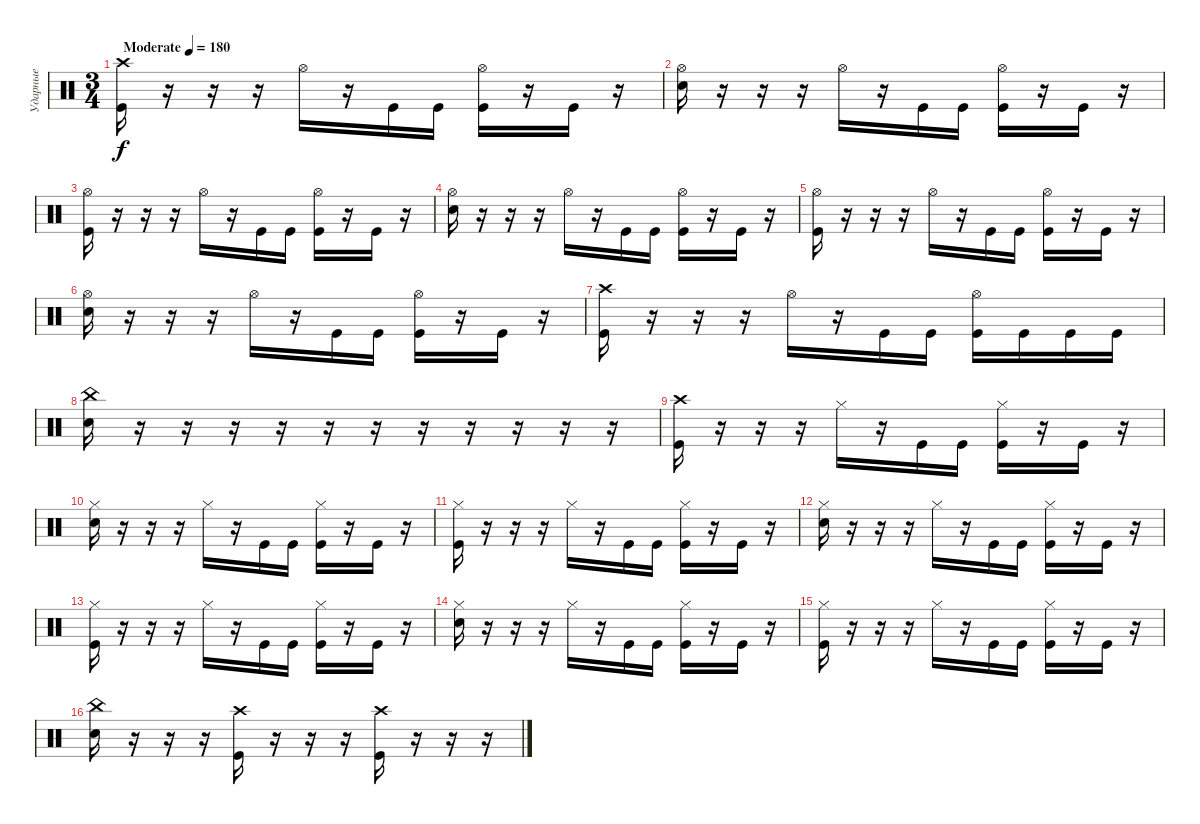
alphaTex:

\track ("Ударные" "Ударные") {instrument percussion}
\staff {score}
\articulation defaults
\ts (3 4)
\tempo (180 "Moderate")
\clef neutral
\ks c
("Crash high (hit)" "Kick (hit)").16{dy f} r.16 r.16 r.16 "Hi-Hat (open)".16 r.16 "Kick (hit)".16 "Kick (hit)".16 ("Hi-Hat (open)" "Kick (hit)").16 r.16 "Kick (hit)".16 r.16 |
("Hi-Hat (open)" "Electric Snare (hit)").16 r.16 r.16 r.16 "Hi-Hat (open)".16 r.16 "Kick (hit)".16 "Kick (hit)".16 ("Hi-Hat (open)" "Kick (hit)").16 r.16 "Kick (hit)".16 r.16 |
("Hi-Hat (open)" "Kick (hit)").16 r.16 r.16 r.16 "Hi-Hat (open)".16 r.16 "Kick (hit)".16 "Kick (hit)".16 ("Hi-Hat (open)" "Kick (hit)").16 r.16 "Kick (hit)".16 r.16 |
("Hi-Hat (open)" "Electric Snare (hit)").16 r.16 r.16 r.16 "Hi-Hat (open)".16 r.16 "Kick (hit)".16 "Kick (hit)".16 ("Hi-Hat (open)" "Kick (hit)").16 r.16 "Kick (hit)".16 r.16 |
("Hi-Hat (open)" "Kick (hit)").16 r.16 r.16 r.16 "Hi-Hat (open)".16 r.16 "Kick (hit)".16 "Kick (hit)".16 ("Hi-Hat (open)" "Kick (hit)").16 r.16 "Kick (hit)".16 r.16 |
("Hi-Hat (open)" "Electric Snare (hit)").16 r.16 r.16 r.16 "Hi-Hat (open)".16 r.16 "Kick (hit)".16 "Kick (hit)".16 ("Hi-Hat (open)" "Kick (hit)").16 r.16 "Kick (hit)".16 r.16 |
("Crash high (hit)" "Kick (hit)").16 r.16 r.16 r.16 "Hi-Hat (open)".16 r.16 "Kick (hit)".16 "Kick (hit)".16 ("Hi-Hat (open)" "Kick (hit)").16 "Kick (hit)".16 "Kick (hit)".16 "Kick (hit)".16 |
("China (hit)" "Electric Snare (hit)").16 r.16 r.16 r.16 r.16 r.16 r.16 r.16 r.16 r.16 r.16 r.16 |
("Crash high (hit)" "Kick (hit)").16 r.16 r.16 r.16 "Hi-Hat (closed)".16 r.16 "Kick (hit)".16 "Kick (hit)".16 ("Hi-Hat (closed)" "Kick (hit)").16 r.16 "Kick (hit)".16 r.16 |
("Hi-Hat (closed)" "Electric Snare (hit)").16 r.16 r.16 r.16 "Hi-Hat (closed)".16 r.16 "Kick (hit)".16 "Kick (hit)".16 ("Hi-Hat (closed)" "Kick (hit)").16 r.16 "Kick (hit)".16 r.16 |
("Hi-Hat (closed)" "Kick (hit)").16 r.16 r.16 r.16 "Hi-Hat (closed)".16 r.16 "Kick (hit)".16 "Kick (hit)".16 ("Hi-Hat (closed)" "Kick (hit)").16 r.16 "Kick (hit)".16 r.16 |
("Hi-Hat (closed)" "Electric Snare (hit)").16 r.16 r.16 r.16 "Hi-Hat (closed)".16 r.16 "Kick (hit)".16 "Kick (hit)".16 ("Hi-Hat (closed)" "Kick (hit)").16 r.16 "Kick (hit)".16 r.16 |
("Hi-Hat (closed)" "Kick (hit)").16 r.16 r.16 r.16 "Hi-Hat (closed)".16 r.16 "Kick (hit)".16 "Kick (hit)".16 ("Hi-Hat (closed)" "Kick (hit)").16 r.16 "Kick (hit)".16 r.16 |
("Hi-Hat (closed)" "Electric Snare (hit)").16 r.16 r.16 r.16 "Hi-Hat (closed)".16 r.16 "Kick (hit)".16 "Kick (hit)".16 ("Hi-Hat (closed)" "Kick (hit)").16 r.16 "Kick (hit)".16 r.16 |
("Hi-Hat (closed)" "Kick (hit)").16 r.16 r.16 r.16 "Hi-Hat (closed)".16 r.16 "Kick (hit)".16 "Kick (hit)".16 ("Hi-Hat (closed)" "Kick (hit)").16 r.16 "Kick (hit)".16 r.16 |
("China (hit)" "Electric Snare (hit)").16 r.16 r.16 r.16 ("Crash high (hit)" "Kick (hit)").16 r.16 r.16 r.16 ("Crash high (hit)" "Kick (hit)").16 r.16 r.16 r.16
